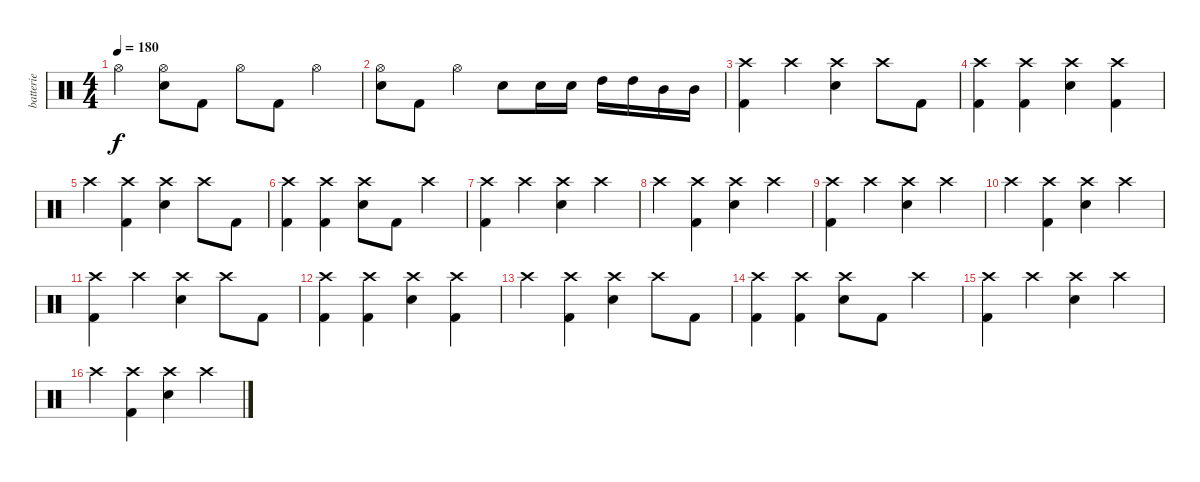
\track ("batterie" "batterie") {instrument percussion}
\staff {score}
\articulation defaults
\ts (4 4)
\tempo 180
\clef neutral
\ks c "Hi-Hat (open)".4{dy f}
("Hi-Hat (open)" "Electric Snare (hit)").8 "Kick (hit) 2".8 "Hi-Hat (open)".8 "Kick (hit) 2".8 "Hi-Hat (open)".4 |
("Hi-Hat (open)" "Electric Snare (hit)").8 "Kick (hit) 2".8 "Hi-Hat (open)".4 "Electric Snare (hit)".8 "Electric Snare (hit)".16 "Electric Snare (hit)".16 "High Tom (hit)".16 "High Tom (hit)".16 "Mid Tom (hit)".16 "Mid Tom (hit)".16 |
("Crash high (hit)" "Kick (hit) 2").4 "Crash high (hit)".4 ("Crash high (hit)" "Electric Snare (hit)").4 "Crash high (hit)".8 "Kick (hit) 2".8 |
("Crash high (hit)" "Kick (hit) 2").4 ("Crash high (hit)" "Kick (hit) 2").4 ("Crash high (hit)" "Electric Snare (hit)").4 ("Crash high (hit)" "Kick (hit) 2").4 |
"Crash high (hit)".4 ("Crash high (hit)" "Kick (hit) 2").4 ("Crash high (hit)" "Electric Snare (hit)").4 "Crash high (hit)".8 "Kick (hit) 2".8 |
("Crash high (hit)" "Kick (hit) 2").4 ("Crash high (hit)" "Kick (hit) 2").4 ("Crash high (hit)" "Electric Snare (hit)").8 "Kick (hit) 2".8 "Crash high (hit)".4 |
("Crash high (hit)" "Kick (hit) 2").4 "Crash high (hit)".4 ("Crash high (hit)" "Electric Snare (hit)").4 "Crash high (hit)".4 |
"Crash high (hit)".4 ("Crash high (hit)" "Kick (hit) 2").4 ("Crash high (hit)" "Electric Snare (hit)").4 "Crash high (hit)".4 |
("Crash high (hit)" "Kick (hit) 2").4 "Crash high (hit)".4 ("Crash high (hit)" "Electric Snare (hit)").4 "Crash high (hit)".4 |
"Crash high (hit)".4 ("Crash high (hit)" "Kick (hit) 2").4 ("Crash high (hit)" "Electric Snare (hit)").4 "Crash high (hit)".4 |
("Crash high (hit)" "Kick (hit) 2").4 "Crash high (hit)".4 ("Crash high (hit)" "Electric Snare (hit)").4 "Crash high (hit)".8 "Kick (hit) 2".8 |
("Crash high (hit)" "Kick (hit) 2").4 ("Crash high (hit)" "Kick (hit) 2").4 ("Crash high (hit)" "Electric Snare (hit)").4 ("Crash high (hit)" "Kick (hit) 2").4 |
"Crash high (hit)".4 ("Crash high (hit)" "Kick (hit) 2").4 ("Crash high (hit)" "Electric Snare (hit)").4 "Crash high (hit)".8 "Kick (hit) 2".8 |
("Crash high (hit)" "Kick (hit) 2").4 ("Crash high (hit)" "Kick (hit) 2").4 ("Crash high (hit)" "Electric Snare (hit)").8 "Kick (hit) 2".8 "Crash high (hit)".4 |
("Crash high (hit)" "Kick (hit) 2").4 "Crash high (hit)".4 ("Crash high (hit)" "Electric Snare (hit)").4 "Crash high (hit)".4 |
"Crash high (hit)".4 ("Crash high (hit)" "Kick (hit) 2").4 ("Crash high (hit)" "Electric Snare (hit)").4 "Crash high (hit)".4
